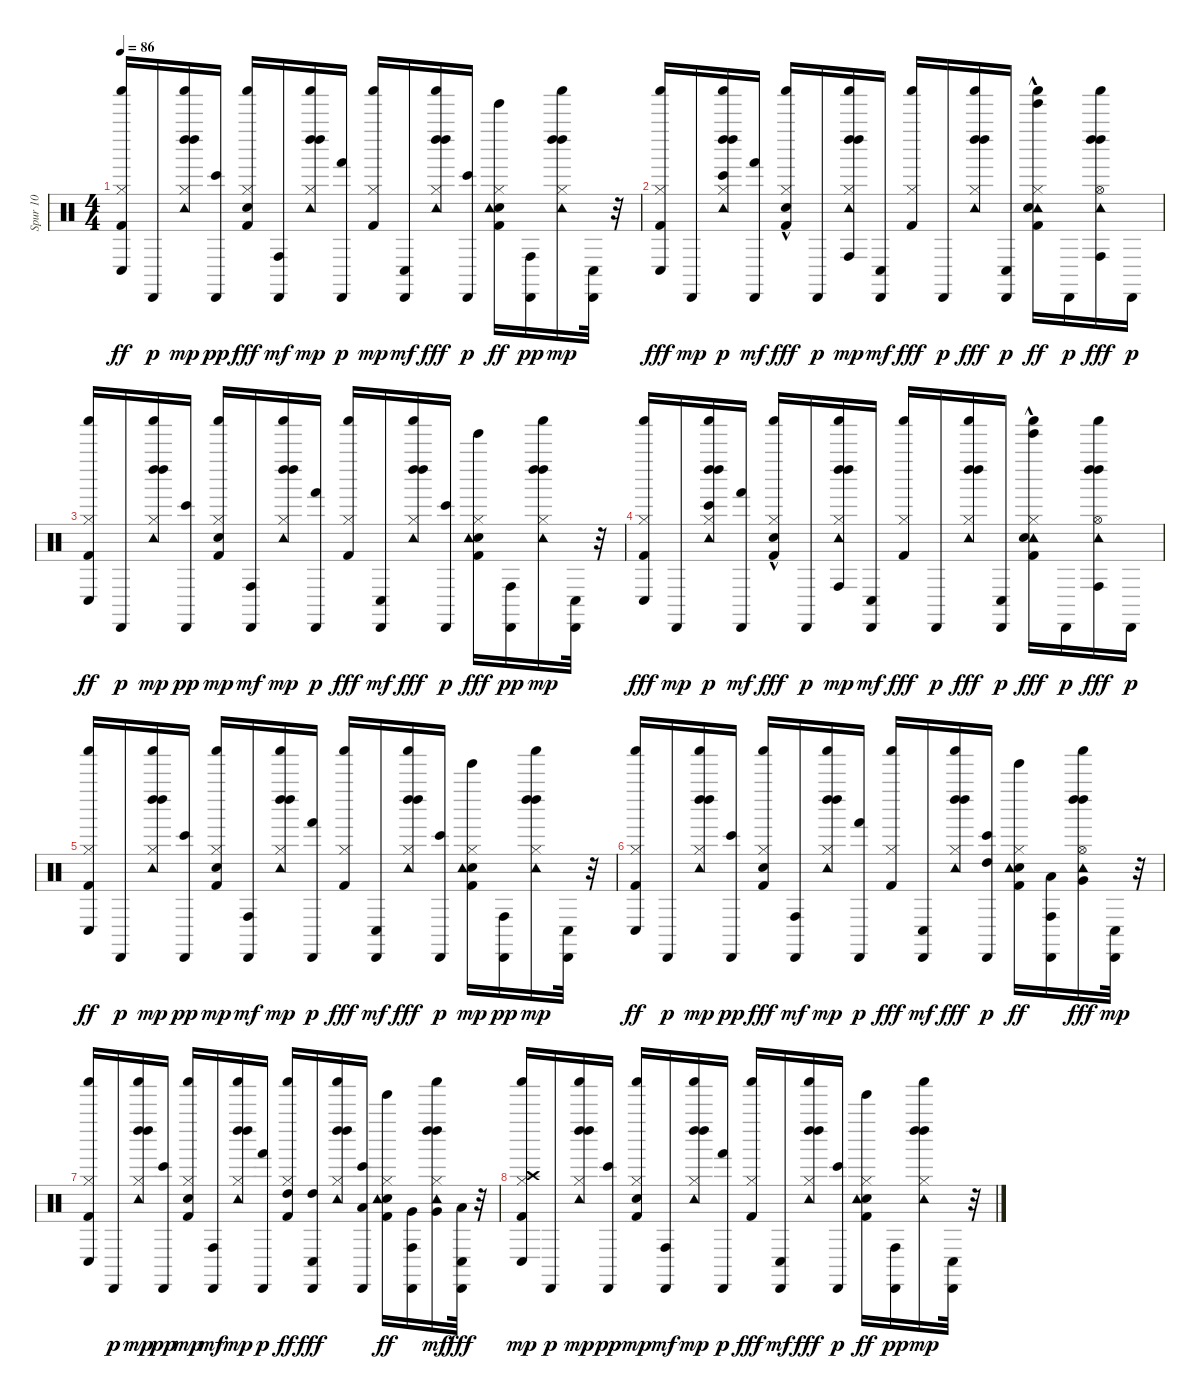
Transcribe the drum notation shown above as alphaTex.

\track ("Spur 10" "Spur 10") {instrument percussion}
\staff {score}
\articulation defaults
\ts (4 4)
\tempo 86
\clef neutral
\ks c
("Hi-Hat (closed)" "Shaker (hit)" "Kick (hit) 2" "Conga low (hit)").16{dy ff} "Cabasa (hit)".16{dy p} ("Shaker (hit)" "Hi-Hat (closed)" "Tambourine (hit)" "Left Maraca (hit)" "Left Maraca (hit)").16{dy mp} ("Bongo High (hit)" "Cabasa (hit)").16{dy pp} ("Hi-Hat (closed)" "Shaker (hit)" "Kick (hit) 2" "Snare (hit) 2").16{dy fff} ("Cabasa (hit)" "Conga high (hit)").16{dy mf} ("Hi-Hat (closed)" "Shaker (hit)" "Tambourine (hit)" "Left Maraca (hit)" "Left Maraca (hit)").16{dy mp} ("Hand (hit)" "Cabasa (hit)").16{dy p} ("Shaker (hit)" "Kick (hit) 2" "Hi-Hat (closed)").16{dy mp} ("Cabasa (hit)" "Conga low (hit)").16{dy mf} ("Shaker (hit)" "Hi-Hat (closed)" "Tambourine (hit)" "Left Maraca (hit)" "Left Maraca (hit)").16{dy fff} ("Bongo High (hit)" "Cabasa (hit)").16{dy p} ("Hi-Hat (closed)" "Snare (hit) 2" "Kick (hit) 2" "Tambourine (hit)" "Tinkle Bell (hit)").16{dy ff} ("Conga high (hit)" "Cabasa (hit)").16{dy pp} ("Shaker (hit)" "Hi-Hat (closed)" "Tambourine (hit)" "Left Maraca (hit)" "Left Maraca (hit)").16{dy mp} ("Conga low (hit)" "Cabasa (hit)").32 r.32 |
("Hi-Hat (closed)" "Kick (hit) 2" "Shaker (hit)" "Conga low (hit)").16{dy fff} "Cabasa (hit)".16{dy mp} ("Hi-Hat (closed)" "Shaker (hit)" "Bongo High (hit)" "Left Maraca (hit)" "Tambourine (hit)" "Left Maraca (hit)").16{dy p} ("Cabasa (hit)" "Hand (hit)").16{dy mf} ("Hi-Hat (closed)" "Snare (hit) 2"{hac} "Shaker (hit)" "Kick (hit) 2").16{dy fff} "Cabasa (hit)".16{dy p} ("Conga high (hit)" "Shaker (hit)" "Hi-Hat (closed)" "Left Maraca (hit)" "Tambourine (hit)" "Left Maraca (hit)").16{dy mp} ("Cabasa (hit)" "Conga low (hit)").16{dy mf} ("Hi-Hat (closed)" "Shaker (hit)" "Kick (hit) 2").16{dy fff} "Cabasa (hit)".16{dy p} ("Shaker (hit)" "Hi-Hat (closed)" "Left Maraca (hit)" "Tambourine (hit)" "Left Maraca (hit)").16{dy fff} ("Cabasa (hit)" "Conga low (hit)").16{dy p} ("Hi-Hat (closed)" "Tambourine (hit)"{hac} "Shaker (hit)" "Kick (hit) 2" "Snare (hit) 2"{hac} "Tinkle Bell (hit)"{hac}).16{dy ff} "Cabasa (hit)".16{dy p} ("Hi-Hat (open)" "Shaker (hit)" "Conga high (hit)" "Left Maraca (hit)" "Tambourine (hit)" "Left Maraca (hit)").16{dy fff} "Cabasa (hit)".16{dy p} |
("Hi-Hat (closed)" "Shaker (hit)" "Kick (hit) 2" "Conga low (hit)").16{dy ff} "Cabasa (hit)".16{dy p} ("Shaker (hit)" "Hi-Hat (closed)" "Left Maraca (hit)" "Tambourine (hit)" "Left Maraca (hit)").16{dy mp} ("Bongo High (hit)" "Cabasa (hit)").16{dy pp} ("Shaker (hit)" "Kick (hit) 2" "Snare (hit) 2" "Hi-Hat (closed)").16{dy mp} ("Cabasa (hit)" "Conga high (hit)").16{dy mf} ("Shaker (hit)" "Hi-Hat (closed)" "Left Maraca (hit)" "Tambourine (hit)" "Left Maraca (hit)").16{dy mp} ("Hand (hit)" "Cabasa (hit)").16{dy p} ("Hi-Hat (closed)" "Shaker (hit)" "Kick (hit) 2").16{dy fff} ("Cabasa (hit)" "Conga low (hit)").16{dy mf} ("Hi-Hat (closed)" "Shaker (hit)" "Left Maraca (hit)" "Tambourine (hit)" "Left Maraca (hit)").16{dy fff} ("Bongo High (hit)" "Cabasa (hit)").16{dy p} ("Hi-Hat (closed)" "Tinkle Bell (hit)" "Kick (hit) 2" "Snare (hit) 2" "Tambourine (hit)").16{dy fff} ("Conga high (hit)" "Cabasa (hit)").16{dy pp} ("Hi-Hat (closed)" "Shaker (hit)" "Left Maraca (hit)" "Tambourine (hit)" "Left Maraca (hit)").16{dy mp} ("Conga low (hit)" "Cabasa (hit)").32 r.32 |
("Hi-Hat (closed)" "Kick (hit) 2" "Shaker (hit)" "Conga low (hit)").16{dy fff} "Cabasa (hit)".16{dy mp} ("Hi-Hat (closed)" "Shaker (hit)" "Bongo High (hit)" "Left Maraca (hit)" "Tambourine (hit)" "Left Maraca (hit)").16{dy p} ("Cabasa (hit)" "Hand (hit)").16{dy mf} ("Hi-Hat (closed)" "Snare (hit) 2"{hac} "Shaker (hit)" "Kick (hit) 2").16{dy fff} "Cabasa (hit)".16{dy p} ("Hi-Hat (closed)" "Conga high (hit)" "Shaker (hit)" "Left Maraca (hit)" "Tambourine (hit)" "Left Maraca (hit)").16{dy mp} ("Cabasa (hit)" "Conga low (hit)").16{dy mf} ("Hi-Hat (closed)" "Shaker (hit)" "Kick (hit) 2").16{dy fff} "Cabasa (hit)".16{dy p} ("Hi-Hat (closed)" "Shaker (hit)" "Left Maraca (hit)" "Tambourine (hit)" "Left Maraca (hit)").16{dy fff} ("Cabasa (hit)" "Conga low (hit)").16{dy p} ("Hi-Hat (closed)" "Tinkle Bell (hit)"{hac} "Tambourine (hit)"{hac} "Shaker (hit)" "Kick (hit) 2" "Snare (hit) 2"{hac}).16{dy fff} "Cabasa (hit)".16{dy p} ("Hi-Hat (open)" "Shaker (hit)" "Conga high (hit)" "Left Maraca (hit)" "Tambourine (hit)" "Left Maraca (hit)").16{dy fff} "Cabasa (hit)".16{dy p} |
("Hi-Hat (closed)" "Shaker (hit)" "Kick (hit) 2" "Conga low (hit)").16{dy ff} "Cabasa (hit)".16{dy p} ("Shaker (hit)" "Hi-Hat (closed)" "Left Maraca (hit)" "Tambourine (hit)" "Left Maraca (hit)").16{dy mp} ("Bongo High (hit)" "Cabasa (hit)").16{dy pp} ("Shaker (hit)" "Kick (hit) 2" "Snare (hit) 2" "Hi-Hat (closed)").16{dy mp} ("Cabasa (hit)" "Conga high (hit)").16{dy mf} ("Shaker (hit)" "Hi-Hat (closed)" "Left Maraca (hit)" "Tambourine (hit)" "Left Maraca (hit)").16{dy mp} ("Hand (hit)" "Cabasa (hit)").16{dy p} ("Hi-Hat (closed)" "Shaker (hit)" "Kick (hit) 2").16{dy fff} ("Cabasa (hit)" "Conga low (hit)").16{dy mf} ("Shaker (hit)" "Hi-Hat (closed)" "Left Maraca (hit)" "Tambourine (hit)" "Left Maraca (hit)").16{dy fff} ("Bongo High (hit)" "Cabasa (hit)").16{dy p} ("Snare (hit) 2" "Kick (hit) 2" "Tambourine (hit)" "Tinkle Bell (hit)" "Hi-Hat (closed)").16{dy mp} ("Conga high (hit)" "Cabasa (hit)").16{dy pp} ("Shaker (hit)" "Hi-Hat (closed)" "Left Maraca (hit)" "Tambourine (hit)" "Left Maraca (hit)").16{dy mp} ("Conga low (hit)" "Cabasa (hit)").32 r.32 |
("Hi-Hat (closed)" "Shaker (hit)" "Kick (hit) 2" "Conga low (hit)").16{dy ff} "Cabasa (hit)".16{dy p} ("Hi-Hat (closed)" "Shaker (hit)" "Left Maraca (hit)" "Tambourine (hit)" "Left Maraca (hit)").16{dy mp} ("Bongo High (hit)" "Cabasa (hit)").16{dy pp} ("Hi-Hat (closed)" "Shaker (hit)" "Kick (hit) 2" "Snare (hit) 2").16{dy fff} ("Cabasa (hit)" "Conga high (hit)").16{dy mf} ("Shaker (hit)" "Hi-Hat (closed)" "Left Maraca (hit)" "Tambourine (hit)" "Left Maraca (hit)").16{dy mp} ("Hand (hit)" "Cabasa (hit)").16{dy p} ("Hi-Hat (closed)" "Shaker (hit)" "Kick (hit) 2").16{dy fff} ("Cabasa (hit)" "Conga low (hit)").16{dy mf} ("Shaker (hit)" "Hi-Hat (closed)" "Left Maraca (hit)" "Tambourine (hit)" "Left Maraca (hit)").16{dy fff} ("High Tom (hit)" "Bongo High (hit)" "Cabasa (hit)").16{dy p} ("Kick (hit) 2" "Snare (hit) 2" "Tambourine (hit)" "Tinkle Bell (hit)" "Hi-Hat (closed)").16{dy ff} ("Conga high (hit)" "Cabasa (hit)" "Low Tom (hit)").16 ("Hi-Hat (open)" "Shaker (hit)" "Very Low Tom (hit)" "Left Maraca (hit)" "Tambourine (hit)" "Left Maraca (hit)").16{dy fff} ("Conga low (hit)" "Cabasa (hit)").32{dy mp} r.32 |
("Shaker (hit)" "Kick (hit) 2" "Conga low (hit)" "Hi-Hat (closed)").16 "Cabasa (hit)".16{dy p} ("Hi-Hat (closed)" "Shaker (hit)" "Tambourine (hit)" "Left Maraca (hit)" "Left Maraca (hit)").16{dy mp} ("Bongo High (hit)" "Cabasa (hit)").16{dy pp} ("Shaker (hit)" "Kick (hit) 2" "Snare (hit) 2" "Hi-Hat (closed)").16{dy mp} ("Cabasa (hit)" "Conga high (hit)").16{dy mf} ("Shaker (hit)" "Hi-Hat (closed)" "Tambourine (hit)" "Left Maraca (hit)" "Left Maraca (hit)").16{dy mp} ("Hand (hit)" "Cabasa (hit)").16{dy p} ("Hi-Hat (closed)" "Shaker (hit)" "Kick (hit) 2" "High Tom (hit)").16{dy ff} ("Cabasa (hit)" "Conga low (hit)" "High Tom (hit)").16{dy fff} ("Shaker (hit)" "Hi-Hat (closed)" "Tambourine (hit)" "Left Maraca (hit)" "Left Maraca (hit)").16 ("Bongo High (hit)" "Cabasa (hit)" "Low Tom (hit)").16 ("Hi-Hat (closed)" "Snare (hit) 2" "Kick (hit) 2" "Tambourine (hit)" "Tinkle Bell (hit)").16{dy ff} ("Conga high (hit)" "Cabasa (hit)" "Very Low Tom (hit)").16 ("Shaker (hit)" "Hi-Hat (closed)" "Very Low Tom (hit)" "Tambourine (hit)" "Left Maraca (hit)" "Left Maraca (hit)").16{dy mf} ("Conga low (hit)" "Cabasa (hit)" "Low Floor Tom (hit)").32{dy fff} r.32 |
("Shaker (hit)" "Kick (hit) 2" "Conga low (hit)" "Crash high (hit)" "Hi-Hat (closed)").16{dy mp} "Cabasa (hit)".16{dy p} ("Hi-Hat (closed)" "Shaker (hit)" "Left Maraca (hit)" "Tambourine (hit)" "Left Maraca (hit)").16{dy mp} ("Bongo High (hit)" "Cabasa (hit)").16{dy pp} ("Shaker (hit)" "Kick (hit) 2" "Snare (hit) 2" "Hi-Hat (closed)").16{dy mp} ("Cabasa (hit)" "Conga high (hit)").16{dy mf} ("Shaker (hit)" "Hi-Hat (closed)" "Left Maraca (hit)" "Tambourine (hit)" "Left Maraca (hit)").16{dy mp} ("Hand (hit)" "Cabasa (hit)").16{dy p} ("Hi-Hat (closed)" "Shaker (hit)" "Kick (hit) 2").16{dy fff} ("Cabasa (hit)" "Conga low (hit)").16{dy mf} ("Shaker (hit)" "Hi-Hat (closed)" "Left Maraca (hit)" "Tambourine (hit)" "Left Maraca (hit)").16{dy fff} ("Bongo High (hit)" "Cabasa (hit)").16{dy p} ("Hi-Hat (closed)" "Snare (hit) 2" "Kick (hit) 2" "Tambourine (hit)" "Tinkle Bell (hit)").16{dy ff} ("Conga high (hit)" "Cabasa (hit)").16{dy pp} ("Shaker (hit)" "Hi-Hat (closed)" "Left Maraca (hit)" "Tambourine (hit)" "Left Maraca (hit)").16{dy mp} ("Conga low (hit)" "Cabasa (hit)").32 r.32
